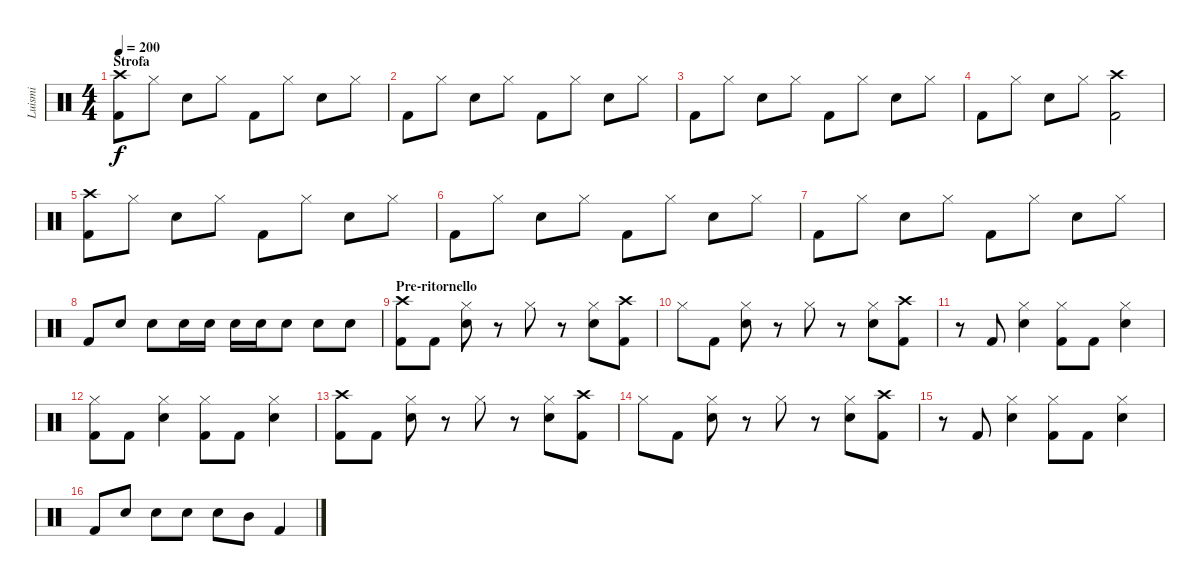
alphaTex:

\track ("Luismi" "Luismi") {instrument percussion}
\staff {score}
\articulation defaults
\ts (4 4)
\section ("" "Strofa")
\tempo 200
\clef neutral
\ks c
("Kick (hit) 2" "Crash high (hit)").8{dy f} "Hi-Hat (closed)".8 "Electric Snare (hit)".8 "Hi-Hat (closed)".8 "Kick (hit) 2".8 "Hi-Hat (closed)".8 "Electric Snare (hit)".8 "Hi-Hat (closed)".8 |
"Kick (hit) 2".8 "Hi-Hat (closed)".8 "Electric Snare (hit)".8 "Hi-Hat (closed)".8 "Kick (hit) 2".8 "Hi-Hat (closed)".8 "Electric Snare (hit)".8 "Hi-Hat (closed)".8 |
"Kick (hit) 2".8 "Hi-Hat (closed)".8 "Electric Snare (hit)".8 "Hi-Hat (closed)".8 "Kick (hit) 2".8 "Hi-Hat (closed)".8 "Electric Snare (hit)".8 "Hi-Hat (closed)".8 |
"Kick (hit) 2".8 "Hi-Hat (closed)".8 "Electric Snare (hit)".8 "Hi-Hat (closed)".8 ("Kick (hit) 2" "Crash high (hit)").2 |
("Kick (hit) 2" "Crash high (hit)").8 "Hi-Hat (closed)".8 "Electric Snare (hit)".8 "Hi-Hat (closed)".8 "Kick (hit) 2".8 "Hi-Hat (closed)".8 "Electric Snare (hit)".8 "Hi-Hat (closed)".8 |
"Kick (hit) 2".8 "Hi-Hat (closed)".8 "Electric Snare (hit)".8 "Hi-Hat (closed)".8 "Kick (hit) 2".8 "Hi-Hat (closed)".8 "Electric Snare (hit)".8 "Hi-Hat (closed)".8 |
"Kick (hit) 2".8 "Hi-Hat (closed)".8 "Electric Snare (hit)".8 "Hi-Hat (closed)".8 "Kick (hit) 2".8 "Hi-Hat (closed)".8 "Electric Snare (hit)".8 "Hi-Hat (closed)".8 |
"Kick (hit) 2".8 "Electric Snare (hit)".8 "Electric Snare (hit)".8 "Electric Snare (hit)".16 "Electric Snare (hit)".16 "Electric Snare (hit)".16 "Electric Snare (hit)".16 "Electric Snare (hit)".8 "Electric Snare (hit)".8 "Electric Snare (hit)".8 |
\section ("" "Pre-ritornello")
("Crash high (hit)" "Kick (hit) 2").8 "Kick (hit) 2".8 ("Hi-Hat (closed)" "Electric Snare (hit)").8 r.8 "Hi-Hat (closed)".8 r.8 ("Hi-Hat (closed)" "Electric Snare (hit)").8 ("Crash high (hit)" "Kick (hit) 2").8 |
"Hi-Hat (closed)".8 "Kick (hit) 2".8 ("Hi-Hat (closed)" "Electric Snare (hit)").8 r.8 "Hi-Hat (closed)".8 r.8 ("Hi-Hat (closed)" "Electric Snare (hit)").8 ("Crash high (hit)" "Kick (hit) 2").8 |
r.8 "Kick (hit) 2".8 ("Hi-Hat (closed)" "Electric Snare (hit)").4 ("Hi-Hat (closed)" "Kick (hit) 2").8 "Kick (hit) 2".8 ("Hi-Hat (closed)" "Electric Snare (hit)").4 |
("Hi-Hat (closed)" "Kick (hit) 2").8 "Kick (hit) 2".8 ("Hi-Hat (closed)" "Electric Snare (hit)").4 ("Hi-Hat (closed)" "Kick (hit) 2").8 "Kick (hit) 2".8 ("Hi-Hat (closed)" "Electric Snare (hit)").4 |
("Crash high (hit)" "Kick (hit) 2").8 "Kick (hit) 2".8 ("Hi-Hat (closed)" "Electric Snare (hit)").8 r.8 "Hi-Hat (closed)".8 r.8 ("Hi-Hat (closed)" "Electric Snare (hit)").8 ("Crash high (hit)" "Kick (hit) 2").8 |
"Hi-Hat (closed)".8 "Kick (hit) 2".8 ("Hi-Hat (closed)" "Electric Snare (hit)").8 r.8 "Hi-Hat (closed)".8 r.8 ("Hi-Hat (closed)" "Electric Snare (hit)").8 ("Crash high (hit)" "Kick (hit) 2").8 |
r.8 "Kick (hit) 2".8 ("Hi-Hat (closed)" "Electric Snare (hit)").4 ("Hi-Hat (closed)" "Kick (hit) 2").8 "Kick (hit) 2".8 ("Hi-Hat (closed)" "Electric Snare (hit)").4 |
"Kick (hit) 2".8 "Electric Snare (hit)".8 "Electric Snare (hit)".8 "Electric Snare (hit)".8 "Electric Snare (hit)".8 "Mid Tom (hit)".8 "Kick (hit) 2".4
